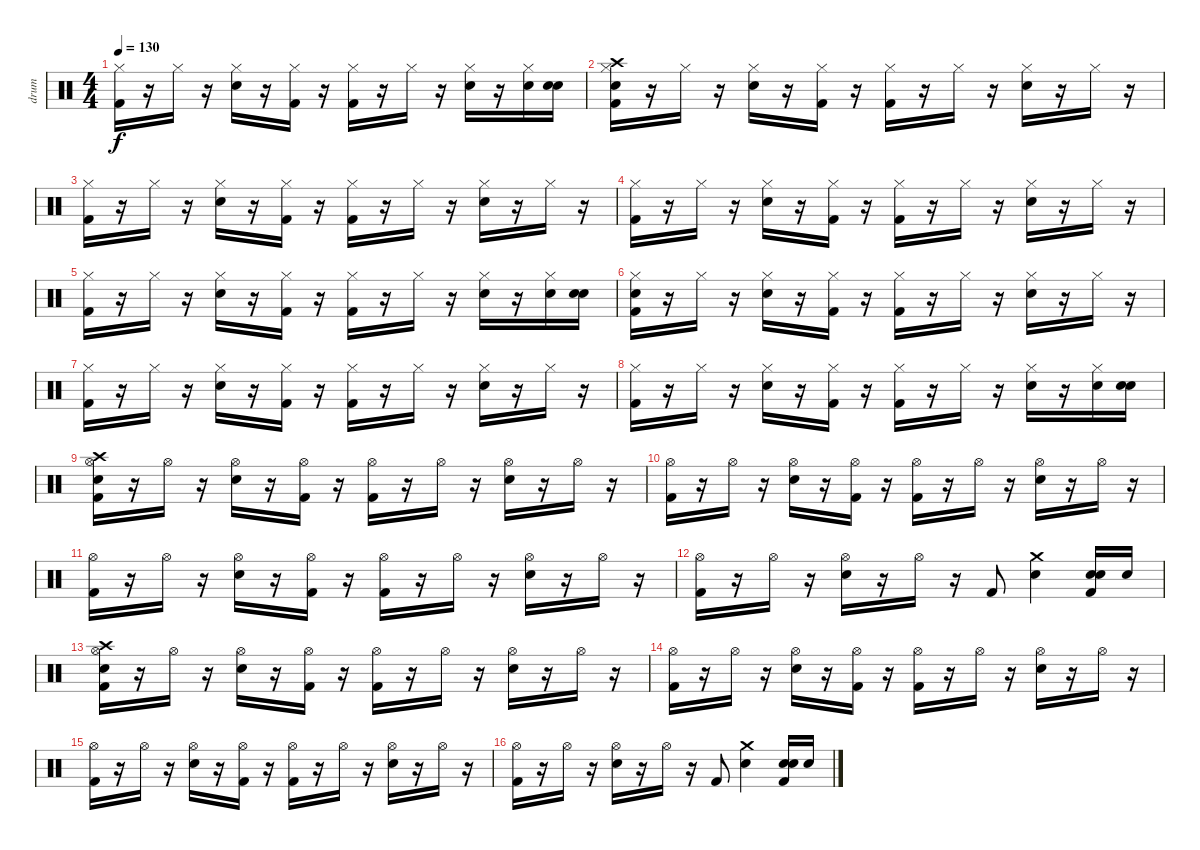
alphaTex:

\track ("drum" "drum") {instrument percussion}
\staff {score}
\articulation defaults
\ts (4 4)
\tempo 130
\clef neutral
\ks c
("Kick (hit) 2" "Hi-Hat (closed)").16{dy f} r.16 "Hi-Hat (closed)".16 r.16 ("Snare (hit) 2" "Hi-Hat (closed)").16 r.16 ("Kick (hit) 2" "Hi-Hat (closed)").16 r.16 ("Hi-Hat (closed)" "Kick (hit) 2").16 r.16 "Hi-Hat (closed)".16 r.16 ("Hi-Hat (closed)" "Snare (hit) 2").16 r.16 ("Snare (hit) 2" "Hi-Hat (closed)").16 ("Snare (hit)" "Snare (hit) 2").16 |
("Snare (hit)" "Crash high (hit)" "Kick (hit) 2" "Hi-Hat (closed)").16 r.16 "Hi-Hat (closed)".16 r.16 ("Hi-Hat (closed)" "Snare (hit) 2").16 r.16 ("Hi-Hat (closed)" "Kick (hit) 2").16 r.16 ("Hi-Hat (closed)" "Kick (hit) 2").16 r.16 "Hi-Hat (closed)".16 r.16 ("Hi-Hat (closed)" "Snare (hit) 2").16 r.16 "Hi-Hat (closed)".16 r.16 |
("Hi-Hat (closed)" "Kick (hit) 2").16 r.16 "Hi-Hat (closed)".16 r.16 ("Snare (hit) 2" "Hi-Hat (closed)").16 r.16 ("Hi-Hat (closed)" "Kick (hit) 2").16 r.16 ("Hi-Hat (closed)" "Kick (hit) 2").16 r.16 "Hi-Hat (closed)".16 r.16 ("Snare (hit) 2" "Hi-Hat (closed)").16 r.16 "Hi-Hat (closed)".16 r.16 |
("Hi-Hat (closed)" "Kick (hit) 2").16 r.16 "Hi-Hat (closed)".16 r.16 ("Hi-Hat (closed)" "Snare (hit) 2").16 r.16 ("Kick (hit) 2" "Hi-Hat (closed)").16 r.16 ("Kick (hit) 2" "Hi-Hat (closed)").16 r.16 "Hi-Hat (closed)".16 r.16 ("Snare (hit) 2" "Hi-Hat (closed)").16 r.16 "Hi-Hat (closed)".16 r.16 |
("Hi-Hat (closed)" "Kick (hit) 2").16 r.16 "Hi-Hat (closed)".16 r.16 ("Hi-Hat (closed)" "Snare (hit) 2").16 r.16 ("Hi-Hat (closed)" "Kick (hit) 2").16 r.16 ("Hi-Hat (closed)" "Kick (hit) 2").16 r.16 "Hi-Hat (closed)".16 r.16 ("Hi-Hat (closed)" "Snare (hit) 2").16 r.16 ("Hi-Hat (closed)" "Snare (hit) 2").16 ("Snare (hit)" "Snare (hit) 2").16 |
("Snare (hit)" "Hi-Hat (closed)" "Kick (hit) 2").16 r.16 "Hi-Hat (closed)".16 r.16 ("Hi-Hat (closed)" "Snare (hit) 2").16 r.16 ("Kick (hit) 2" "Hi-Hat (closed)").16 r.16 ("Hi-Hat (closed)" "Kick (hit) 2").16 r.16 "Hi-Hat (closed)".16 r.16 ("Hi-Hat (closed)" "Snare (hit) 2").16 r.16 "Hi-Hat (closed)".16 r.16 |
("Kick (hit) 2" "Hi-Hat (closed)").16 r.16 "Hi-Hat (closed)".16 r.16 ("Snare (hit) 2" "Hi-Hat (closed)").16 r.16 ("Hi-Hat (closed)" "Kick (hit) 2").16 r.16 ("Kick (hit) 2" "Hi-Hat (closed)").16 r.16 "Hi-Hat (closed)".16 r.16 ("Snare (hit) 2" "Hi-Hat (closed)").16 r.16 "Hi-Hat (closed)".16 r.16 |
("Kick (hit) 2" "Hi-Hat (closed)").16 r.16 "Hi-Hat (closed)".16 r.16 ("Hi-Hat (closed)" "Snare (hit) 2").16 r.16 ("Hi-Hat (closed)" "Kick (hit) 2").16 r.16 ("Kick (hit) 2" "Hi-Hat (closed)").16 r.16 "Hi-Hat (closed)".16 r.16 ("Hi-Hat (closed)" "Snare (hit) 2").16 r.16 ("Hi-Hat (closed)" "Snare (hit) 2").16 ("Snare (hit)" "Snare (hit) 2").16 |
("Snare (hit)" "Kick (hit) 2" "Crash high (hit)" "Hi-Hat (open)").16 r.16 "Hi-Hat (open)".16 r.16 ("Snare (hit) 2" "Hi-Hat (open)").16 r.16 ("Kick (hit) 2" "Hi-Hat (open)").16 r.16 ("Hi-Hat (open)" "Kick (hit) 2").16 r.16 "Hi-Hat (open)".16 r.16 ("Snare (hit) 2" "Hi-Hat (open)").16 r.16 "Hi-Hat (open)".16 r.16 |
("Kick (hit) 2" "Hi-Hat (open)").16 r.16 "Hi-Hat (open)".16 r.16 ("Hi-Hat (open)" "Snare (hit) 2").16 r.16 ("Hi-Hat (open)" "Kick (hit) 2").16 r.16 ("Kick (hit) 2" "Hi-Hat (open)").16 r.16 "Hi-Hat (open)".16 r.16 ("Hi-Hat (open)" "Snare (hit) 2").16 r.16 "Hi-Hat (open)".16 r.16 |
("Kick (hit) 2" "Hi-Hat (open)").16 r.16 "Hi-Hat (open)".16 r.16 ("Hi-Hat (open)" "Snare (hit) 2").16 r.16 ("Kick (hit) 2" "Hi-Hat (open)").16 r.16 ("Kick (hit) 2" "Hi-Hat (open)").16 r.16 "Hi-Hat (open)".16 r.16 ("Hi-Hat (open)" "Snare (hit) 2").16 r.16 "Hi-Hat (open)".16 r.16 |
("Kick (hit) 2" "Hi-Hat (open)").16 r.16 "Hi-Hat (open)".16 r.16 ("Snare (hit) 2" "Hi-Hat (open)").16 r.16 "Hi-Hat (open)".16 r.16 "Kick (hit) 2".8 ("Snare (hit) 2" "Crash medium (hit)").4 ("Snare (hit)" "Snare (hit) 2" "Kick (hit) 2").16 "Snare (hit) 2".16 |
("Snare (hit)" "Hi-Hat (open)" "Crash high (hit)" "Kick (hit) 2").16 r.16 "Hi-Hat (open)".16 r.16 ("Hi-Hat (open)" "Snare (hit) 2").16 r.16 ("Kick (hit) 2" "Hi-Hat (open)").16 r.16 ("Hi-Hat (open)" "Kick (hit) 2").16 r.16 "Hi-Hat (open)".16 r.16 ("Snare (hit) 2" "Hi-Hat (open)").16 r.16 "Hi-Hat (open)".16 r.16 |
("Kick (hit) 2" "Hi-Hat (open)").16 r.16 "Hi-Hat (open)".16 r.16 ("Hi-Hat (open)" "Snare (hit) 2").16 r.16 ("Kick (hit) 2" "Hi-Hat (open)").16 r.16 ("Kick (hit) 2" "Hi-Hat (open)").16 r.16 "Hi-Hat (open)".16 r.16 ("Snare (hit) 2" "Hi-Hat (open)").16 r.16 "Hi-Hat (open)".16 r.16 |
("Hi-Hat (open)" "Kick (hit) 2").16 r.16 "Hi-Hat (open)".16 r.16 ("Snare (hit) 2" "Hi-Hat (open)").16 r.16 ("Kick (hit) 2" "Hi-Hat (open)").16 r.16 ("Kick (hit) 2" "Hi-Hat (open)").16 r.16 "Hi-Hat (open)".16 r.16 ("Hi-Hat (open)" "Snare (hit) 2").16 r.16 "Hi-Hat (open)".16 r.16 |
("Kick (hit) 2" "Hi-Hat (open)").16 r.16 "Hi-Hat (open)".16 r.16 ("Snare (hit) 2" "Hi-Hat (open)").16 r.16 "Hi-Hat (open)".16 r.16 "Kick (hit) 2".8 ("Crash medium (hit)" "Snare (hit) 2").4 ("Snare (hit)" "Kick (hit) 2" "Snare (hit) 2").16 "Snare (hit) 2".16
